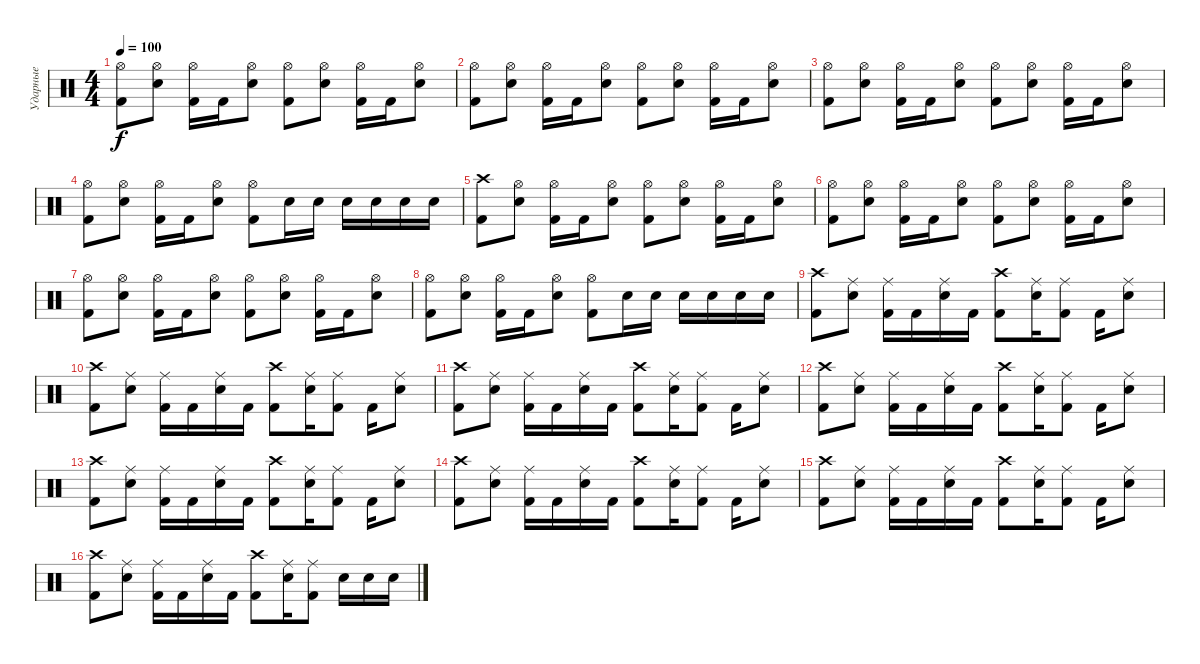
\track ("Ударные" "Ударные") {instrument percussion}
\staff {score}
\articulation defaults
\ts (4 4)
\tempo 100
\clef neutral
\ks c
("Hi-Hat (open)" "Kick (hit) 2").8{dy f} ("Hi-Hat (open)" "Snare (hit) 2").8 ("Hi-Hat (open)" "Kick (hit) 2").16 "Kick (hit) 2".16 ("Hi-Hat (open)" "Snare (hit) 2").8 ("Hi-Hat (open)" "Kick (hit) 2").8 ("Hi-Hat (open)" "Snare (hit) 2").8 ("Hi-Hat (open)" "Kick (hit) 2").16 "Kick (hit) 2".16 ("Hi-Hat (open)" "Snare (hit) 2").8 |
("Hi-Hat (open)" "Kick (hit) 2").8 ("Hi-Hat (open)" "Snare (hit) 2").8 ("Hi-Hat (open)" "Kick (hit) 2").16 "Kick (hit) 2".16 ("Hi-Hat (open)" "Snare (hit) 2").8 ("Hi-Hat (open)" "Kick (hit) 2").8 ("Hi-Hat (open)" "Snare (hit) 2").8 ("Hi-Hat (open)" "Kick (hit) 2").16 "Kick (hit) 2".16 ("Hi-Hat (open)" "Snare (hit) 2").8 |
("Hi-Hat (open)" "Kick (hit) 2").8 ("Hi-Hat (open)" "Snare (hit) 2").8 ("Hi-Hat (open)" "Kick (hit) 2").16 "Kick (hit) 2".16 ("Hi-Hat (open)" "Snare (hit) 2").8 ("Hi-Hat (open)" "Kick (hit) 2").8 ("Hi-Hat (open)" "Snare (hit) 2").8 ("Hi-Hat (open)" "Kick (hit) 2").16 "Kick (hit) 2".16 ("Hi-Hat (open)" "Snare (hit) 2").8 |
("Hi-Hat (open)" "Kick (hit) 2").8 ("Hi-Hat (open)" "Snare (hit) 2").8 ("Hi-Hat (open)" "Kick (hit) 2").16 "Kick (hit) 2".16 ("Hi-Hat (open)" "Snare (hit) 2").8 ("Hi-Hat (open)" "Kick (hit) 2").8 "Snare (hit) 2".16 "Snare (hit) 2".16 "Snare (hit) 2".16 "Snare (hit) 2".16 "Snare (hit) 2".16 "Snare (hit) 2".16 |
("Crash high (hit)" "Kick (hit) 2").8 ("Hi-Hat (open)" "Snare (hit) 2").8 ("Hi-Hat (open)" "Kick (hit) 2").16 "Kick (hit) 2".16 ("Hi-Hat (open)" "Snare (hit) 2").8 ("Hi-Hat (open)" "Kick (hit) 2").8 ("Hi-Hat (open)" "Snare (hit) 2").8 ("Hi-Hat (open)" "Kick (hit) 2").16 "Kick (hit) 2".16 ("Hi-Hat (open)" "Snare (hit) 2").8 |
("Hi-Hat (open)" "Kick (hit) 2").8 ("Hi-Hat (open)" "Snare (hit) 2").8 ("Hi-Hat (open)" "Kick (hit) 2").16 "Kick (hit) 2".16 ("Hi-Hat (open)" "Snare (hit) 2").8 ("Hi-Hat (open)" "Kick (hit) 2").8 ("Hi-Hat (open)" "Snare (hit) 2").8 ("Hi-Hat (open)" "Kick (hit) 2").16 "Kick (hit) 2".16 ("Hi-Hat (open)" "Snare (hit) 2").8 |
("Hi-Hat (open)" "Kick (hit) 2").8 ("Hi-Hat (open)" "Snare (hit) 2").8 ("Hi-Hat (open)" "Kick (hit) 2").16 "Kick (hit) 2".16 ("Hi-Hat (open)" "Snare (hit) 2").8 ("Hi-Hat (open)" "Kick (hit) 2").8 ("Hi-Hat (open)" "Snare (hit) 2").8 ("Hi-Hat (open)" "Kick (hit) 2").16 "Kick (hit) 2".16 ("Hi-Hat (open)" "Snare (hit) 2").8 |
("Hi-Hat (open)" "Kick (hit) 2").8 ("Hi-Hat (open)" "Snare (hit) 2").8 ("Hi-Hat (open)" "Kick (hit) 2").16 "Kick (hit) 2".16 ("Hi-Hat (open)" "Snare (hit) 2").8 ("Hi-Hat (open)" "Kick (hit) 2").8 "Snare (hit) 2".16 "Snare (hit) 2".16 "Snare (hit) 2".16 "Snare (hit) 2".16 "Snare (hit) 2".16 "Snare (hit) 2".16 |
("Crash high (hit)" "Kick (hit) 2").8 ("Ride (middle)" "Snare (hit) 2").8 ("Ride (middle)" "Kick (hit) 2").16 "Kick (hit) 2".16 ("Ride (middle)" "Snare (hit) 2").16 "Kick (hit) 2".16 ("Crash high (hit)" "Kick (hit) 2").8 ("Ride (middle)" "Snare (hit) 2").16 ("Ride (middle)" "Kick (hit) 2").8 "Kick (hit) 2".16 ("Ride (middle)" "Snare (hit) 2").8 |
("Crash high (hit)" "Kick (hit) 2").8 ("Ride (middle)" "Snare (hit) 2").8 ("Ride (middle)" "Kick (hit) 2").16 "Kick (hit) 2".16 ("Ride (middle)" "Snare (hit) 2").16 "Kick (hit) 2".16 ("Crash high (hit)" "Kick (hit) 2").8 ("Ride (middle)" "Snare (hit) 2").16 ("Ride (middle)" "Kick (hit) 2").8 "Kick (hit) 2".16 ("Ride (middle)" "Snare (hit) 2").8 |
("Crash high (hit)" "Kick (hit) 2").8 ("Ride (middle)" "Snare (hit) 2").8 ("Ride (middle)" "Kick (hit) 2").16 "Kick (hit) 2".16 ("Ride (middle)" "Snare (hit) 2").16 "Kick (hit) 2".16 ("Crash high (hit)" "Kick (hit) 2").8 ("Ride (middle)" "Snare (hit) 2").16 ("Ride (middle)" "Kick (hit) 2").8 "Kick (hit) 2".16 ("Ride (middle)" "Snare (hit) 2").8 |
("Crash high (hit)" "Kick (hit) 2").8 ("Ride (middle)" "Snare (hit) 2").8 ("Ride (middle)" "Kick (hit) 2").16 "Kick (hit) 2".16 ("Ride (middle)" "Snare (hit) 2").16 "Kick (hit) 2".16 ("Crash high (hit)" "Kick (hit) 2").8 ("Ride (middle)" "Snare (hit) 2").16 ("Ride (middle)" "Kick (hit) 2").8 "Kick (hit) 2".16 ("Ride (middle)" "Snare (hit) 2").8 |
("Crash high (hit)" "Kick (hit) 2").8 ("Ride (middle)" "Snare (hit) 2").8 ("Ride (middle)" "Kick (hit) 2").16 "Kick (hit) 2".16 ("Ride (middle)" "Snare (hit) 2").16 "Kick (hit) 2".16 ("Crash high (hit)" "Kick (hit) 2").8 ("Ride (middle)" "Snare (hit) 2").16 ("Ride (middle)" "Kick (hit) 2").8 "Kick (hit) 2".16 ("Ride (middle)" "Snare (hit) 2").8 |
("Crash high (hit)" "Kick (hit) 2").8 ("Ride (middle)" "Snare (hit) 2").8 ("Ride (middle)" "Kick (hit) 2").16 "Kick (hit) 2".16 ("Ride (middle)" "Snare (hit) 2").16 "Kick (hit) 2".16 ("Crash high (hit)" "Kick (hit) 2").8 ("Ride (middle)" "Snare (hit) 2").16 ("Ride (middle)" "Kick (hit) 2").8 "Kick (hit) 2".16 ("Ride (middle)" "Snare (hit) 2").8 |
("Crash high (hit)" "Kick (hit) 2").8 ("Ride (middle)" "Snare (hit) 2").8 ("Ride (middle)" "Kick (hit) 2").16 "Kick (hit) 2".16 ("Ride (middle)" "Snare (hit) 2").16 "Kick (hit) 2".16 ("Crash high (hit)" "Kick (hit) 2").8 ("Ride (middle)" "Snare (hit) 2").16 ("Ride (middle)" "Kick (hit) 2").8 "Kick (hit) 2".16 ("Ride (middle)" "Snare (hit) 2").8 |
("Crash high (hit)" "Kick (hit) 2").8 ("Ride (middle)" "Snare (hit) 2").8 ("Ride (middle)" "Kick (hit) 2").16 "Kick (hit) 2".16 ("Ride (middle)" "Snare (hit) 2").16 "Kick (hit) 2".16 ("Crash high (hit)" "Kick (hit) 2").8 ("Ride (middle)" "Snare (hit) 2").16 ("Ride (middle)" "Kick (hit) 2").8 "Snare (hit) 2".16 "Snare (hit) 2".16 "Snare (hit) 2".16
